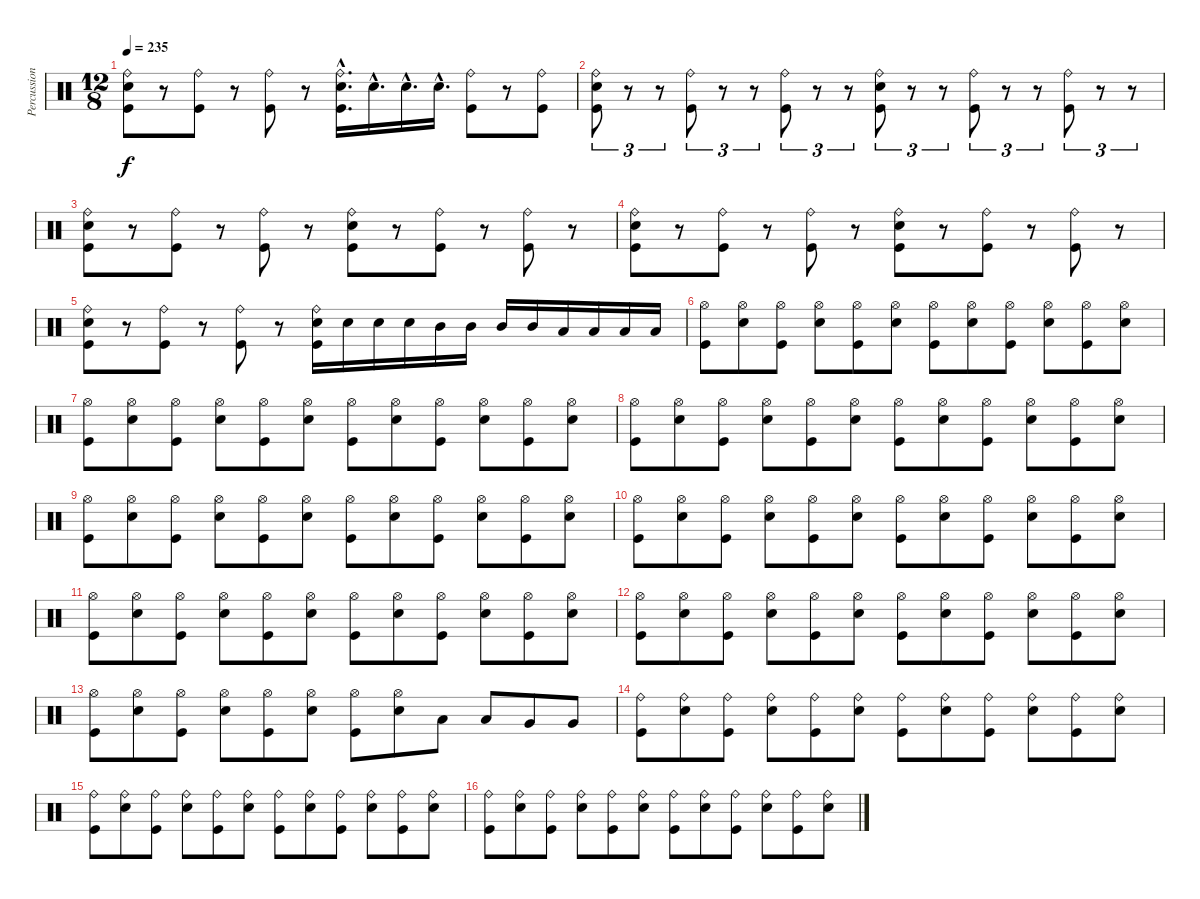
\track ("Percussion" "Percussion") {instrument percussion}
\staff {score}
\articulation defaults
\ts (12 8)
\tempo 235
\clef neutral
\ks c
("Ride (bell)" "Snare (hit) 2" "Kick (hit)").8{dy f} r.8 ("Ride (bell)" "Kick (hit)").8 r.8 ("Ride (bell)" "Kick (hit)").8 r.8 ("Ride (bell)"{hac} "Snare (hit) 2"{hac} "Kick (hit)"{hac}).16{d} "Snare (hit) 2"{hac}.16{d} "Snare (hit) 2"{hac}.16{d} "Snare (hit) 2"{hac}.16{d} ("Ride (bell)" "Kick (hit)").8 r.8 ("Ride (bell)" "Kick (hit)").8 |
("Ride (bell)" "Snare (hit) 2" "Kick (hit)").8{tu (3 2)} r.8{tu (3 2)} r.8{tu (3 2)} ("Ride (bell)" "Kick (hit)").8{tu (3 2)} r.8{tu (3 2)} r.8{tu (3 2)} ("Ride (bell)" "Kick (hit)").8{tu (3 2)} r.8{tu (3 2)} r.8{tu (3 2)} ("Ride (bell)" "Snare (hit) 2" "Kick (hit)").8{tu (3 2)} r.8{tu (3 2)} r.8{tu (3 2)} ("Ride (bell)" "Kick (hit)").8{tu (3 2)} r.8{tu (3 2)} r.8{tu (3 2)} ("Ride (bell)" "Kick (hit)").8{tu (3 2)} r.8{tu (3 2)} r.8{tu (3 2)} |
("Ride (bell)" "Snare (hit) 2" "Kick (hit)").8 r.8 ("Ride (bell)" "Kick (hit)").8 r.8 ("Ride (bell)" "Kick (hit)").8 r.8 ("Ride (bell)" "Snare (hit) 2" "Kick (hit)").8 r.8 ("Ride (bell)" "Kick (hit)").8 r.8 ("Ride (bell)" "Kick (hit)").8 r.8 |
("Ride (bell)" "Snare (hit) 2" "Kick (hit)").8 r.8 ("Ride (bell)" "Kick (hit)").8 r.8 ("Ride (bell)" "Kick (hit)").8 r.8 ("Ride (bell)" "Snare (hit) 2" "Kick (hit)").8 r.8 ("Ride (bell)" "Kick (hit)").8 r.8 ("Ride (bell)" "Kick (hit)").8 r.8 |
("Ride (bell)" "Snare (hit) 2" "Kick (hit)").8 r.8 ("Ride (bell)" "Kick (hit)").8 r.8 ("Ride (bell)" "Kick (hit)").8 r.8 ("Ride (bell)" "Snare (hit) 2" "Kick (hit)").16 "Snare (hit) 2".16 "Snare (hit) 2".16 "Snare (hit) 2".16 "Mid Tom (hit)".16 "Mid Tom (hit)".16 "Mid Tom (hit)".16 "Mid Tom (hit)".16 "Low Tom (hit)".16 "Low Tom (hit)".16 "Low Tom (hit)".16 "Low Tom (hit)".16 |
("Hi-Hat (open)" "Kick (hit)").8 ("Hi-Hat (open)" "Snare (hit) 2").8 ("Hi-Hat (open)" "Kick (hit)").8 ("Hi-Hat (open)" "Snare (hit) 2").8 ("Hi-Hat (open)" "Kick (hit)").8 ("Hi-Hat (open)" "Snare (hit) 2").8 ("Hi-Hat (open)" "Kick (hit)").8 ("Hi-Hat (open)" "Snare (hit) 2").8 ("Hi-Hat (open)" "Kick (hit)").8 ("Hi-Hat (open)" "Snare (hit) 2").8 ("Hi-Hat (open)" "Kick (hit)").8 ("Hi-Hat (open)" "Snare (hit) 2").8 |
("Hi-Hat (open)" "Kick (hit)").8 ("Hi-Hat (open)" "Snare (hit) 2").8 ("Hi-Hat (open)" "Kick (hit)").8 ("Hi-Hat (open)" "Snare (hit) 2").8 ("Hi-Hat (open)" "Kick (hit)").8 ("Hi-Hat (open)" "Snare (hit) 2").8 ("Hi-Hat (open)" "Kick (hit)").8 ("Hi-Hat (open)" "Snare (hit) 2").8 ("Hi-Hat (open)" "Kick (hit)").8 ("Hi-Hat (open)" "Snare (hit) 2").8 ("Hi-Hat (open)" "Kick (hit)").8 ("Hi-Hat (open)" "Snare (hit) 2").8 |
("Hi-Hat (open)" "Kick (hit)").8 ("Hi-Hat (open)" "Snare (hit) 2").8 ("Hi-Hat (open)" "Kick (hit)").8 ("Hi-Hat (open)" "Snare (hit) 2").8 ("Hi-Hat (open)" "Kick (hit)").8 ("Hi-Hat (open)" "Snare (hit) 2").8 ("Hi-Hat (open)" "Kick (hit)").8 ("Hi-Hat (open)" "Snare (hit) 2").8 ("Hi-Hat (open)" "Kick (hit)").8 ("Hi-Hat (open)" "Snare (hit) 2").8 ("Hi-Hat (open)" "Kick (hit)").8 ("Hi-Hat (open)" "Snare (hit) 2").8 |
("Hi-Hat (open)" "Kick (hit)").8 ("Hi-Hat (open)" "Snare (hit) 2").8 ("Hi-Hat (open)" "Kick (hit)").8 ("Hi-Hat (open)" "Snare (hit) 2").8 ("Hi-Hat (open)" "Kick (hit)").8 ("Hi-Hat (open)" "Snare (hit) 2").8 ("Hi-Hat (open)" "Kick (hit)").8 ("Hi-Hat (open)" "Snare (hit) 2").8 ("Hi-Hat (open)" "Kick (hit)").8 ("Hi-Hat (open)" "Snare (hit) 2").8 ("Hi-Hat (open)" "Kick (hit)").8 ("Hi-Hat (open)" "Snare (hit) 2").8 |
("Hi-Hat (open)" "Kick (hit)").8 ("Hi-Hat (open)" "Snare (hit) 2").8 ("Hi-Hat (open)" "Kick (hit)").8 ("Hi-Hat (open)" "Snare (hit) 2").8 ("Hi-Hat (open)" "Kick (hit)").8 ("Hi-Hat (open)" "Snare (hit) 2").8 ("Hi-Hat (open)" "Kick (hit)").8 ("Hi-Hat (open)" "Snare (hit) 2").8 ("Hi-Hat (open)" "Kick (hit)").8 ("Hi-Hat (open)" "Snare (hit) 2").8 ("Hi-Hat (open)" "Kick (hit)").8 ("Hi-Hat (open)" "Snare (hit) 2").8 |
("Hi-Hat (open)" "Kick (hit)").8 ("Hi-Hat (open)" "Snare (hit) 2").8 ("Hi-Hat (open)" "Kick (hit)").8 ("Hi-Hat (open)" "Snare (hit) 2").8 ("Hi-Hat (open)" "Kick (hit)").8 ("Hi-Hat (open)" "Snare (hit) 2").8 ("Hi-Hat (open)" "Kick (hit)").8 ("Hi-Hat (open)" "Snare (hit) 2").8 ("Hi-Hat (open)" "Kick (hit)").8 ("Hi-Hat (open)" "Snare (hit) 2").8 ("Hi-Hat (open)" "Kick (hit)").8 ("Hi-Hat (open)" "Snare (hit) 2").8 |
("Hi-Hat (open)" "Kick (hit)").8 ("Hi-Hat (open)" "Snare (hit) 2").8 ("Hi-Hat (open)" "Kick (hit)").8 ("Hi-Hat (open)" "Snare (hit) 2").8 ("Hi-Hat (open)" "Kick (hit)").8 ("Hi-Hat (open)" "Snare (hit) 2").8 ("Hi-Hat (open)" "Kick (hit)").8 ("Hi-Hat (open)" "Snare (hit) 2").8 ("Hi-Hat (open)" "Kick (hit)").8 ("Hi-Hat (open)" "Snare (hit) 2").8 ("Hi-Hat (open)" "Kick (hit)").8 ("Hi-Hat (open)" "Snare (hit) 2").8 |
("Hi-Hat (open)" "Kick (hit)").8 ("Hi-Hat (open)" "Snare (hit) 2").8 ("Hi-Hat (open)" "Kick (hit)").8 ("Hi-Hat (open)" "Snare (hit) 2").8 ("Hi-Hat (open)" "Kick (hit)").8 ("Hi-Hat (open)" "Snare (hit) 2").8 ("Hi-Hat (open)" "Kick (hit)").8 ("Hi-Hat (open)" "Snare (hit) 2").8 "Low Tom (hit)".8 "Low Tom (hit)".8 "Very Low Tom (hit)".8 "Very Low Tom (hit)".8 |
("Ride (bell)" "Kick (hit)").8 ("Ride (bell)" "Snare (hit) 2").8 ("Ride (bell)" "Kick (hit)").8 ("Ride (bell)" "Snare (hit) 2").8 ("Ride (bell)" "Kick (hit)").8 ("Ride (bell)" "Snare (hit) 2").8 ("Ride (bell)" "Kick (hit)").8 ("Ride (bell)" "Snare (hit) 2").8 ("Ride (bell)" "Kick (hit)").8 ("Ride (bell)" "Snare (hit) 2").8 ("Ride (bell)" "Kick (hit)").8 ("Ride (bell)" "Snare (hit) 2").8 |
("Ride (bell)" "Kick (hit)").8 ("Ride (bell)" "Snare (hit) 2").8 ("Ride (bell)" "Kick (hit)").8 ("Ride (bell)" "Snare (hit) 2").8 ("Ride (bell)" "Kick (hit)").8 ("Ride (bell)" "Snare (hit) 2").8 ("Ride (bell)" "Kick (hit)").8 ("Ride (bell)" "Snare (hit) 2").8 ("Ride (bell)" "Kick (hit)").8 ("Ride (bell)" "Snare (hit) 2").8 ("Ride (bell)" "Kick (hit)").8 ("Ride (bell)" "Snare (hit) 2").8 |
("Ride (bell)" "Kick (hit)").8 ("Ride (bell)" "Snare (hit) 2").8 ("Ride (bell)" "Kick (hit)").8 ("Ride (bell)" "Snare (hit) 2").8 ("Ride (bell)" "Kick (hit)").8 ("Ride (bell)" "Snare (hit) 2").8 ("Ride (bell)" "Kick (hit)").8 ("Ride (bell)" "Snare (hit) 2").8 ("Ride (bell)" "Kick (hit)").8 ("Ride (bell)" "Snare (hit) 2").8 ("Ride (bell)" "Kick (hit)").8 ("Ride (bell)" "Snare (hit) 2").8
